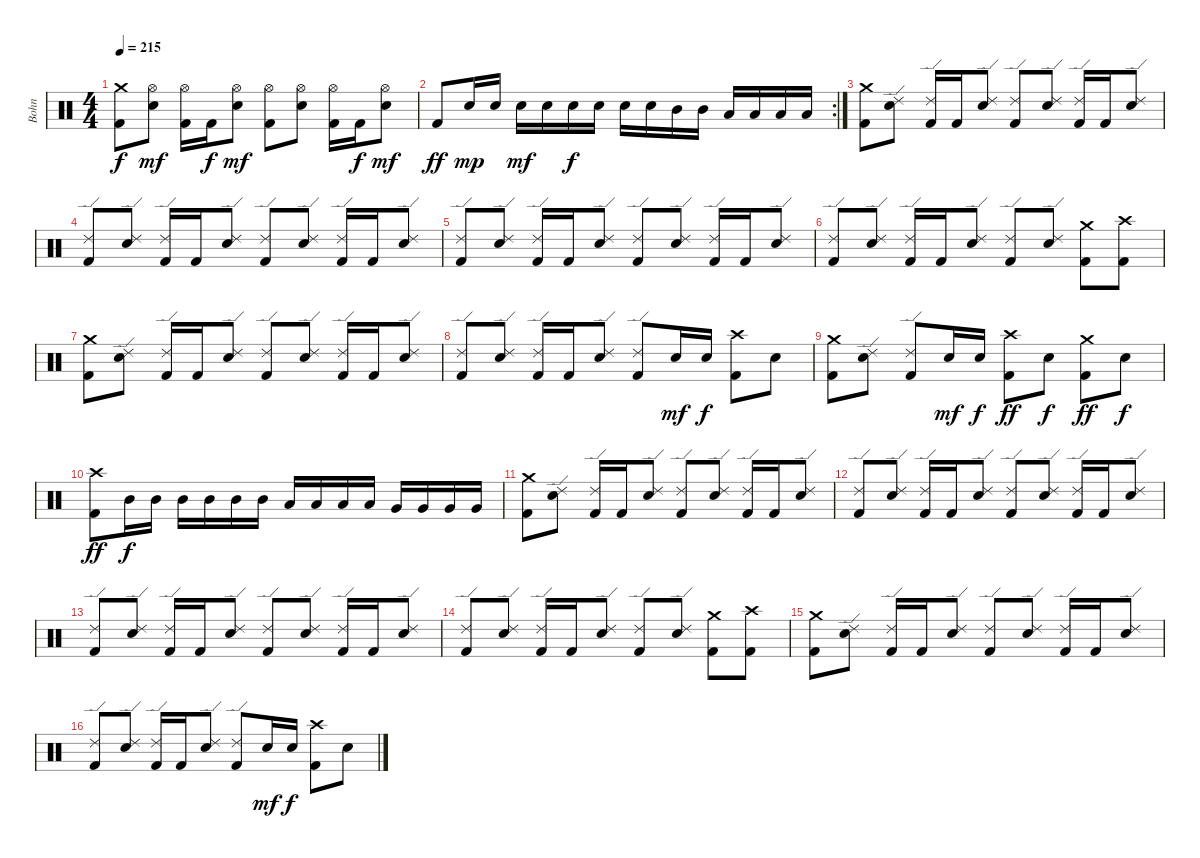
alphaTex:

\track ("Bohn" "Bohn") {instrument percussion}
\staff {score}
\articulation defaults
\ts (4 4)
\tempo 215
\clef neutral
\ks c
("Crash medium (hit)" "Kick (hit) 2").8{dy f} ("Hi-Hat (open)" "Electric Snare (hit)").8{dy mf} ("Hi-Hat (open)" "Kick (hit) 2").16 "Kick (hit) 2".16{dy f} ("Hi-Hat (open)" "Electric Snare (hit)").8{dy mf} ("Hi-Hat (open)" "Kick (hit) 2").8 ("Hi-Hat (open)" "Electric Snare (hit)").8 ("Hi-Hat (open)" "Kick (hit) 2").16 "Kick (hit) 2".16{dy f} ("Hi-Hat (open)" "Electric Snare (hit)").8{dy mf} |
\rc 2 "Kick (hit) 2".8{dy ff} "Electric Snare (hit)".16{dy mp} "Electric Snare (hit)".16 "Electric Snare (hit)".16{dy mf} "Electric Snare (hit)".16 "Electric Snare (hit)".16{dy f} "Electric Snare (hit)".16 "Electric Snare (hit)".16 "Electric Snare (hit)".16 "Mid Tom (hit)".16 "Mid Tom (hit)".16 "Low Tom (hit)".16 "Low Tom (hit)".16 "Low Tom (hit)".16 "Low Tom (hit)".16
|
("Crash medium (hit)" "Kick (hit) 2").8 ("Ride (edge) 2" "Electric Snare (hit)").8 ("Ride (edge) 2" "Kick (hit) 2").16 "Kick (hit) 2".16 ("Ride (edge) 2" "Electric Snare (hit)").8 ("Ride (edge) 2" "Kick (hit) 2").8 ("Ride (edge) 2" "Electric Snare (hit)").8 ("Ride (edge) 2" "Kick (hit) 2").16 "Kick (hit) 2".16 ("Ride (edge) 2" "Electric Snare (hit)").8 |
("Ride (edge) 2" "Kick (hit) 2").8 ("Ride (edge) 2" "Electric Snare (hit)").8 ("Ride (edge) 2" "Kick (hit) 2").16 "Kick (hit) 2".16 ("Ride (edge) 2" "Electric Snare (hit)").8 ("Ride (edge) 2" "Kick (hit) 2").8 ("Ride (edge) 2" "Electric Snare (hit)").8 ("Ride (edge) 2" "Kick (hit) 2").16 "Kick (hit) 2".16 ("Ride (edge) 2" "Electric Snare (hit)").8 |
("Ride (edge) 2" "Kick (hit) 2").8 ("Ride (edge) 2" "Electric Snare (hit)").8 ("Ride (edge) 2" "Kick (hit) 2").16 "Kick (hit) 2".16 ("Ride (edge) 2" "Electric Snare (hit)").8 ("Ride (edge) 2" "Kick (hit) 2").8 ("Ride (edge) 2" "Electric Snare (hit)").8 ("Ride (edge) 2" "Kick (hit) 2").16 "Kick (hit) 2".16 ("Ride (edge) 2" "Electric Snare (hit)").8 |
("Ride (edge) 2" "Kick (hit) 2").8 ("Ride (edge) 2" "Electric Snare (hit)").8 ("Ride (edge) 2" "Kick (hit) 2").16 "Kick (hit) 2".16 ("Ride (edge) 2" "Electric Snare (hit)").8 ("Ride (edge) 2" "Kick (hit) 2").8 ("Ride (edge) 2" "Electric Snare (hit)").8 ("Crash medium (hit)" "Kick (hit) 2").8 ("Crash high (hit)" "Kick (hit) 2").8 |
("Crash medium (hit)" "Kick (hit) 2").8 ("Ride (edge) 2" "Electric Snare (hit)").8 ("Ride (edge) 2" "Kick (hit) 2").16 "Kick (hit) 2".16 ("Ride (edge) 2" "Electric Snare (hit)").8 ("Ride (edge) 2" "Kick (hit) 2").8 ("Ride (edge) 2" "Electric Snare (hit)").8 ("Ride (edge) 2" "Kick (hit) 2").16 "Kick (hit) 2".16 ("Ride (edge) 2" "Electric Snare (hit)").8 |
("Ride (edge) 2" "Kick (hit) 2").8 ("Ride (edge) 2" "Electric Snare (hit)").8 ("Ride (edge) 2" "Kick (hit) 2").16 "Kick (hit) 2".16 ("Ride (edge) 2" "Electric Snare (hit)").8 ("Ride (edge) 2" "Kick (hit) 2").8 "Electric Snare (hit)".16{dy mf} "Electric Snare (hit)".16{dy f} ("Crash high (hit)" "Kick (hit) 2").8 "Electric Snare (hit)".8 |
("Crash medium (hit)" "Kick (hit) 2").8 ("Ride (edge) 2" "Electric Snare (hit)").8 ("Ride (edge) 2" "Kick (hit) 2").8 "Electric Snare (hit)".16{dy mf} "Electric Snare (hit)".16{dy f} ("Crash high (hit)" "Kick (hit) 2").8{dy ff} "Electric Snare (hit)".8{dy f} ("Crash medium (hit)" "Kick (hit) 2").8{dy ff} "Electric Snare (hit)".8{dy f} |
("Crash high (hit)" "Kick (hit) 2").8{dy ff} "Mid Tom (hit)".16{dy f} "Mid Tom (hit)".16 "Mid Tom (hit)".16 "Mid Tom (hit)".16 "Mid Tom (hit)".16 "Mid Tom (hit)".16 "Low Tom (hit)".16 "Low Tom (hit)".16 "Low Tom (hit)".16 "Low Tom (hit)".16 "Very Low Tom (hit)".16 "Very Low Tom (hit)".16 "Very Low Tom (hit)".16 "Very Low Tom (hit)".16 |
("Crash medium (hit)" "Kick (hit) 2").8 ("Ride (edge) 2" "Electric Snare (hit)").8 ("Ride (edge) 2" "Kick (hit) 2").16 "Kick (hit) 2".16 ("Ride (edge) 2" "Electric Snare (hit)").8 ("Ride (edge) 2" "Kick (hit) 2").8 ("Ride (edge) 2" "Electric Snare (hit)").8 ("Ride (edge) 2" "Kick (hit) 2").16 "Kick (hit) 2".16 ("Ride (edge) 2" "Electric Snare (hit)").8 |
("Ride (edge) 2" "Kick (hit) 2").8 ("Ride (edge) 2" "Electric Snare (hit)").8 ("Ride (edge) 2" "Kick (hit) 2").16 "Kick (hit) 2".16 ("Ride (edge) 2" "Electric Snare (hit)").8 ("Ride (edge) 2" "Kick (hit) 2").8 ("Ride (edge) 2" "Electric Snare (hit)").8 ("Ride (edge) 2" "Kick (hit) 2").16 "Kick (hit) 2".16 ("Ride (edge) 2" "Electric Snare (hit)").8 |
("Ride (edge) 2" "Kick (hit) 2").8 ("Ride (edge) 2" "Electric Snare (hit)").8 ("Ride (edge) 2" "Kick (hit) 2").16 "Kick (hit) 2".16 ("Ride (edge) 2" "Electric Snare (hit)").8 ("Ride (edge) 2" "Kick (hit) 2").8 ("Ride (edge) 2" "Electric Snare (hit)").8 ("Ride (edge) 2" "Kick (hit) 2").16 "Kick (hit) 2".16 ("Ride (edge) 2" "Electric Snare (hit)").8 |
("Ride (edge) 2" "Kick (hit) 2").8 ("Ride (edge) 2" "Electric Snare (hit)").8 ("Ride (edge) 2" "Kick (hit) 2").16 "Kick (hit) 2".16 ("Ride (edge) 2" "Electric Snare (hit)").8 ("Ride (edge) 2" "Kick (hit) 2").8 ("Ride (edge) 2" "Electric Snare (hit)").8 ("Crash medium (hit)" "Kick (hit) 2").8 ("Crash high (hit)" "Kick (hit) 2").8 |
("Crash medium (hit)" "Kick (hit) 2").8 ("Ride (edge) 2" "Electric Snare (hit)").8 ("Ride (edge) 2" "Kick (hit) 2").16 "Kick (hit) 2".16 ("Ride (edge) 2" "Electric Snare (hit)").8 ("Ride (edge) 2" "Kick (hit) 2").8 ("Ride (edge) 2" "Electric Snare (hit)").8 ("Ride (edge) 2" "Kick (hit) 2").16 "Kick (hit) 2".16 ("Ride (edge) 2" "Electric Snare (hit)").8 |
("Ride (edge) 2" "Kick (hit) 2").8 ("Ride (edge) 2" "Electric Snare (hit)").8 ("Ride (edge) 2" "Kick (hit) 2").16 "Kick (hit) 2".16 ("Ride (edge) 2" "Electric Snare (hit)").8 ("Ride (edge) 2" "Kick (hit) 2").8 "Electric Snare (hit)".16{dy mf} "Electric Snare (hit)".16{dy f} ("Crash high (hit)" "Kick (hit) 2").8 "Electric Snare (hit)".8
